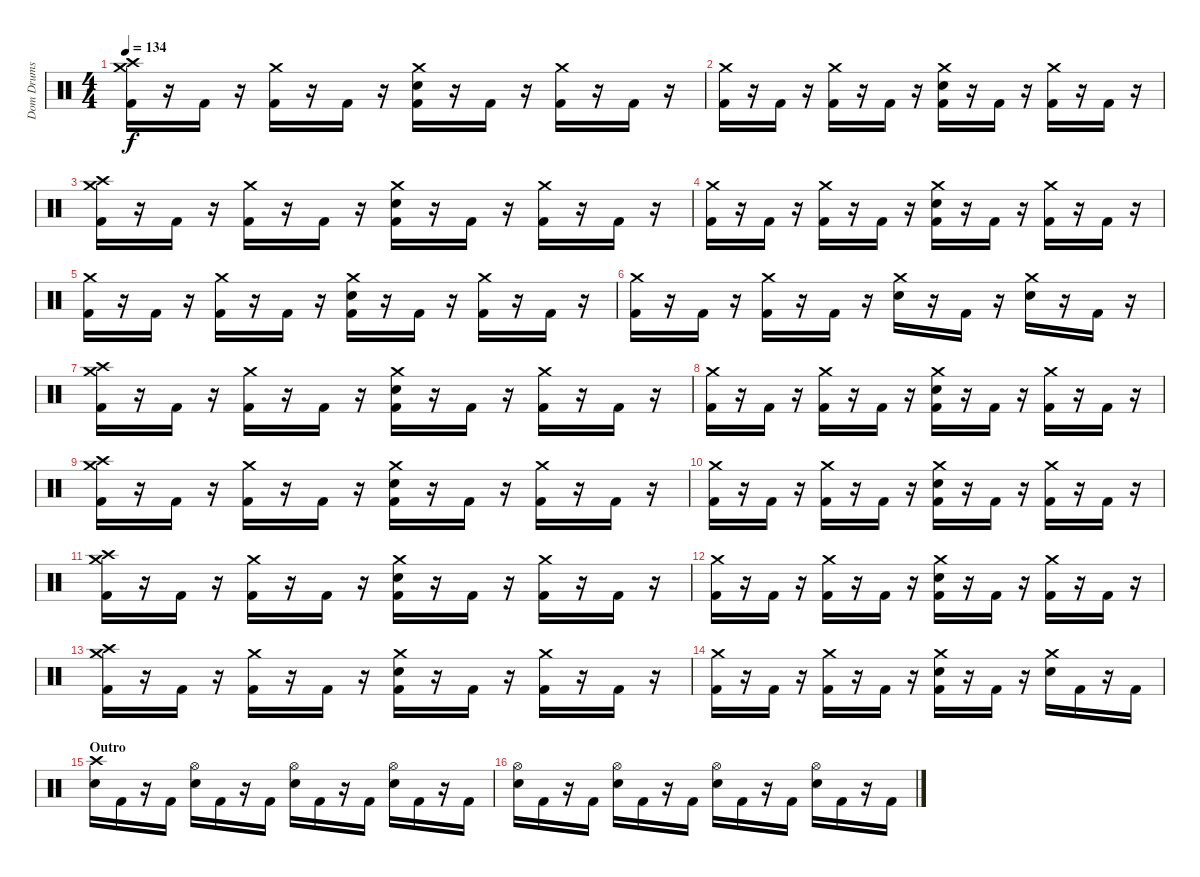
\track ("Dom Drums" "Dom Drums") {instrument percussion}
\staff {score}
\articulation defaults
\ts (4 4)
\tempo 134
\clef neutral
\ks c
("Crash medium (hit)" "Crash high (hit)" "Kick (hit) 2").16{dy f} r.16 "Kick (hit) 2".16 r.16 ("Crash medium (hit)" "Kick (hit) 2").16 r.16 "Kick (hit) 2".16 r.16 ("Crash medium (hit)" "Electric Snare (hit)" "Kick (hit) 2").16 r.16 "Kick (hit) 2".16 r.16 ("Crash medium (hit)" "Kick (hit) 2").16 r.16 "Kick (hit) 2".16 r.16 |
("Crash medium (hit)" "Kick (hit) 2").16 r.16 "Kick (hit) 2".16 r.16 ("Crash medium (hit)" "Kick (hit) 2").16 r.16 "Kick (hit) 2".16 r.16 ("Crash medium (hit)" "Electric Snare (hit)" "Kick (hit) 2").16 r.16 "Kick (hit) 2".16 r.16 ("Crash medium (hit)" "Kick (hit) 2").16 r.16 "Kick (hit) 2".16 r.16 |
("Crash medium (hit)" "Crash high (hit)" "Kick (hit) 2").16 r.16 "Kick (hit) 2".16 r.16 ("Crash medium (hit)" "Kick (hit) 2").16 r.16 "Kick (hit) 2".16 r.16 ("Crash medium (hit)" "Electric Snare (hit)" "Kick (hit) 2").16 r.16 "Kick (hit) 2".16 r.16 ("Crash medium (hit)" "Kick (hit) 2").16 r.16 "Kick (hit) 2".16 r.16 |
("Crash medium (hit)" "Kick (hit) 2").16 r.16 "Kick (hit) 2".16 r.16 ("Crash medium (hit)" "Kick (hit) 2").16 r.16 "Kick (hit) 2".16 r.16 ("Crash medium (hit)" "Electric Snare (hit)" "Kick (hit) 2").16 r.16 "Kick (hit) 2".16 r.16 ("Crash medium (hit)" "Kick (hit) 2").16 r.16 "Kick (hit) 2".16 r.16 |
("Crash medium (hit)" "Kick (hit) 2").16 r.16 "Kick (hit) 2".16 r.16 ("Crash medium (hit)" "Kick (hit) 2").16 r.16 "Kick (hit) 2".16 r.16 ("Crash medium (hit)" "Electric Snare (hit)" "Kick (hit) 2").16 r.16 "Kick (hit) 2".16 r.16 ("Crash medium (hit)" "Kick (hit) 2").16 r.16 "Kick (hit) 2".16 r.16 |
("Crash medium (hit)" "Kick (hit) 2").16 r.16 "Kick (hit) 2".16 r.16 ("Crash medium (hit)" "Kick (hit) 2").16 r.16 "Kick (hit) 2".16 r.16 ("Crash medium (hit)" "Electric Snare (hit)").16 r.16 "Kick (hit) 2".16 r.16 ("Crash medium (hit)" "Electric Snare (hit)").16 r.16 "Kick (hit) 2".16 r.16 |
("Crash medium (hit)" "Crash high (hit)" "Kick (hit) 2").16 r.16 "Kick (hit) 2".16 r.16 ("Crash medium (hit)" "Kick (hit) 2").16 r.16 "Kick (hit) 2".16 r.16 ("Crash medium (hit)" "Electric Snare (hit)" "Kick (hit) 2").16 r.16 "Kick (hit) 2".16 r.16 ("Crash medium (hit)" "Kick (hit) 2").16 r.16 "Kick (hit) 2".16 r.16 |
("Crash medium (hit)" "Kick (hit) 2").16 r.16 "Kick (hit) 2".16 r.16 ("Crash medium (hit)" "Kick (hit) 2").16 r.16 "Kick (hit) 2".16 r.16 ("Crash medium (hit)" "Electric Snare (hit)" "Kick (hit) 2").16 r.16 "Kick (hit) 2".16 r.16 ("Crash medium (hit)" "Kick (hit) 2").16 r.16 "Kick (hit) 2".16 r.16 |
("Crash medium (hit)" "Crash high (hit)" "Kick (hit) 2").16 r.16 "Kick (hit) 2".16 r.16 ("Crash medium (hit)" "Kick (hit) 2").16 r.16 "Kick (hit) 2".16 r.16 ("Crash medium (hit)" "Electric Snare (hit)" "Kick (hit) 2").16 r.16 "Kick (hit) 2".16 r.16 ("Crash medium (hit)" "Kick (hit) 2").16 r.16 "Kick (hit) 2".16 r.16 |
("Crash medium (hit)" "Kick (hit) 2").16 r.16 "Kick (hit) 2".16 r.16 ("Crash medium (hit)" "Kick (hit) 2").16 r.16 "Kick (hit) 2".16 r.16 ("Crash medium (hit)" "Electric Snare (hit)" "Kick (hit) 2").16 r.16 "Kick (hit) 2".16 r.16 ("Crash medium (hit)" "Kick (hit) 2").16 r.16 "Kick (hit) 2".16 r.16 |
("Crash medium (hit)" "Crash high (hit)" "Kick (hit) 2").16 r.16 "Kick (hit) 2".16 r.16 ("Crash medium (hit)" "Kick (hit) 2").16 r.16 "Kick (hit) 2".16 r.16 ("Crash medium (hit)" "Electric Snare (hit)" "Kick (hit) 2").16 r.16 "Kick (hit) 2".16 r.16 ("Crash medium (hit)" "Kick (hit) 2").16 r.16 "Kick (hit) 2".16 r.16 |
("Crash medium (hit)" "Kick (hit) 2").16 r.16 "Kick (hit) 2".16 r.16 ("Crash medium (hit)" "Kick (hit) 2").16 r.16 "Kick (hit) 2".16 r.16 ("Crash medium (hit)" "Electric Snare (hit)" "Kick (hit) 2").16 r.16 "Kick (hit) 2".16 r.16 ("Crash medium (hit)" "Kick (hit) 2").16 r.16 "Kick (hit) 2".16 r.16 |
("Crash medium (hit)" "Crash high (hit)" "Kick (hit) 2").16 r.16 "Kick (hit) 2".16 r.16 ("Crash medium (hit)" "Kick (hit) 2").16 r.16 "Kick (hit) 2".16 r.16 ("Crash medium (hit)" "Electric Snare (hit)" "Kick (hit) 2").16 r.16 "Kick (hit) 2".16 r.16 ("Crash medium (hit)" "Kick (hit) 2").16 r.16 "Kick (hit) 2".16 r.16 |
("Crash medium (hit)" "Kick (hit) 2").16 r.16 "Kick (hit) 2".16 r.16 ("Crash medium (hit)" "Kick (hit) 2").16 r.16 "Kick (hit) 2".16 r.16 ("Crash medium (hit)" "Electric Snare (hit)" "Kick (hit) 2").16 r.16 "Kick (hit) 2".16 r.16 ("Crash medium (hit)" "Electric Snare (hit)").16 "Kick (hit) 2".16 r.16 "Kick (hit) 2".16 |
\section ("" "Outro")
("Crash high (hit)" "Electric Snare (hit)").16 "Kick (hit) 2".16 r.16 "Kick (hit) 2".16 ("Hi-Hat (open)" "Electric Snare (hit)").16 "Kick (hit) 2".16 r.16 "Kick (hit) 2".16 ("Hi-Hat (open)" "Electric Snare (hit)").16 "Kick (hit) 2".16 r.16 "Kick (hit) 2".16 ("Hi-Hat (open)" "Electric Snare (hit)").16 "Kick (hit) 2".16 r.16 "Kick (hit) 2".16 |
("Hi-Hat (open)" "Electric Snare (hit)").16 "Kick (hit) 2".16 r.16 "Kick (hit) 2".16 ("Hi-Hat (open)" "Electric Snare (hit)").16 "Kick (hit) 2".16 r.16 "Kick (hit) 2".16 ("Hi-Hat (open)" "Electric Snare (hit)").16 "Kick (hit) 2".16 r.16 "Kick (hit) 2".16 ("Hi-Hat (open)" "Electric Snare (hit)").16 "Kick (hit) 2".16 r.16 "Kick (hit) 2".16
